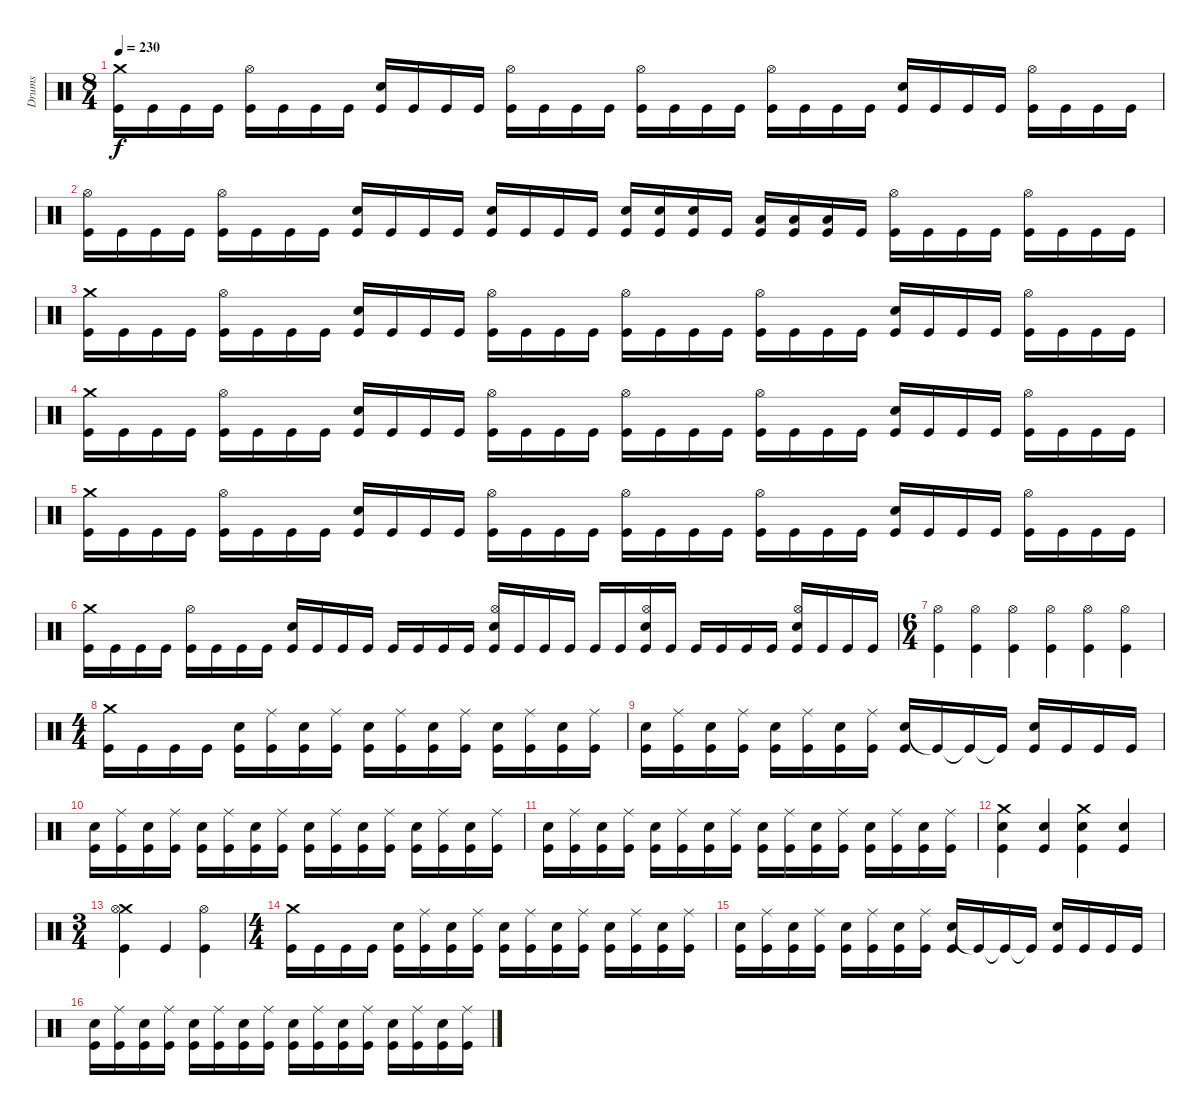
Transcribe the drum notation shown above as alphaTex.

\track ("Drums" "Drums") {instrument percussion}
\staff {score}
\articulation defaults
\ts (8 4)
\tempo 230
\clef neutral
\ks c
("Crash medium (hit)" "Kick (hit)").16{dy f} "Kick (hit)".16 "Kick (hit)".16 "Kick (hit)".16 ("Hi-Hat (open)" "Kick (hit)").16 "Kick (hit)".16 "Kick (hit)".16 "Kick (hit)".16 ("Electric Snare (hit)" "Kick (hit)").16 "Kick (hit)".16 "Kick (hit)".16 "Kick (hit)".16 ("Hi-Hat (open)" "Kick (hit)").16 "Kick (hit)".16 "Kick (hit)".16 "Kick (hit)".16 ("Hi-Hat (open)" "Kick (hit)").16 "Kick (hit)".16 "Kick (hit)".16 "Kick (hit)".16 ("Hi-Hat (open)" "Kick (hit)").16 "Kick (hit)".16 "Kick (hit)".16 "Kick (hit)".16 ("Electric Snare (hit)" "Kick (hit)").16 "Kick (hit)".16 "Kick (hit)".16 "Kick (hit)".16 ("Hi-Hat (open)" "Kick (hit)").16 "Kick (hit)".16 "Kick (hit)".16 "Kick (hit)".16 |
("Hi-Hat (open)" "Kick (hit)").16 "Kick (hit)".16 "Kick (hit)".16 "Kick (hit)".16 ("Hi-Hat (open)" "Kick (hit)").16 "Kick (hit)".16 "Kick (hit)".16 "Kick (hit)".16 ("Electric Snare (hit)" "Kick (hit)").16 "Kick (hit)".16 "Kick (hit)".16 "Kick (hit)".16 ("Electric Snare (hit)" "Kick (hit)").16 "Kick (hit)".16 "Kick (hit)".16 "Kick (hit)".16 ("Electric Snare (hit)" "Kick (hit)").16 ("Electric Snare (hit)" "Kick (hit)").16 ("Electric Snare (hit)" "Kick (hit)").16 "Kick (hit)".16 ("Low Floor Tom (hit)" "Kick (hit)").16 ("Low Floor Tom (hit)" "Kick (hit)").16 ("Low Floor Tom (hit)" "Kick (hit)").16 "Kick (hit)".16 ("Hi-Hat (open)" "Kick (hit)").16 "Kick (hit)".16 "Kick (hit)".16 "Kick (hit)".16 ("Hi-Hat (open)" "Kick (hit)").16 "Kick (hit)".16 "Kick (hit)".16 "Kick (hit)".16 |
("Crash medium (hit)" "Kick (hit)").16 "Kick (hit)".16 "Kick (hit)".16 "Kick (hit)".16 ("Hi-Hat (open)" "Kick (hit)").16 "Kick (hit)".16 "Kick (hit)".16 "Kick (hit)".16 ("Electric Snare (hit)" "Kick (hit)").16 "Kick (hit)".16 "Kick (hit)".16 "Kick (hit)".16 ("Hi-Hat (open)" "Kick (hit)").16 "Kick (hit)".16 "Kick (hit)".16 "Kick (hit)".16 ("Hi-Hat (open)" "Kick (hit)").16 "Kick (hit)".16 "Kick (hit)".16 "Kick (hit)".16 ("Hi-Hat (open)" "Kick (hit)").16 "Kick (hit)".16 "Kick (hit)".16 "Kick (hit)".16 ("Electric Snare (hit)" "Kick (hit)").16 "Kick (hit)".16 "Kick (hit)".16 "Kick (hit)".16 ("Hi-Hat (open)" "Kick (hit)").16 "Kick (hit)".16 "Kick (hit)".16 "Kick (hit)".16 |
("Crash medium (hit)" "Kick (hit)").16 "Kick (hit)".16 "Kick (hit)".16 "Kick (hit)".16 ("Hi-Hat (open)" "Kick (hit)").16 "Kick (hit)".16 "Kick (hit)".16 "Kick (hit)".16 ("Electric Snare (hit)" "Kick (hit)").16 "Kick (hit)".16 "Kick (hit)".16 "Kick (hit)".16 ("Hi-Hat (open)" "Kick (hit)").16 "Kick (hit)".16 "Kick (hit)".16 "Kick (hit)".16 ("Hi-Hat (open)" "Kick (hit)").16 "Kick (hit)".16 "Kick (hit)".16 "Kick (hit)".16 ("Hi-Hat (open)" "Kick (hit)").16 "Kick (hit)".16 "Kick (hit)".16 "Kick (hit)".16 ("Electric Snare (hit)" "Kick (hit)").16 "Kick (hit)".16 "Kick (hit)".16 "Kick (hit)".16 ("Hi-Hat (open)" "Kick (hit)").16 "Kick (hit)".16 "Kick (hit)".16 "Kick (hit)".16 |
("Crash medium (hit)" "Kick (hit)").16 "Kick (hit)".16 "Kick (hit)".16 "Kick (hit)".16 ("Hi-Hat (open)" "Kick (hit)").16 "Kick (hit)".16 "Kick (hit)".16 "Kick (hit)".16 ("Electric Snare (hit)" "Kick (hit)").16 "Kick (hit)".16 "Kick (hit)".16 "Kick (hit)".16 ("Hi-Hat (open)" "Kick (hit)").16 "Kick (hit)".16 "Kick (hit)".16 "Kick (hit)".16 ("Hi-Hat (open)" "Kick (hit)").16 "Kick (hit)".16 "Kick (hit)".16 "Kick (hit)".16 ("Hi-Hat (open)" "Kick (hit)").16 "Kick (hit)".16 "Kick (hit)".16 "Kick (hit)".16 ("Electric Snare (hit)" "Kick (hit)").16 "Kick (hit)".16 "Kick (hit)".16 "Kick (hit)".16 ("Hi-Hat (open)" "Kick (hit)").16 "Kick (hit)".16 "Kick (hit)".16 "Kick (hit)".16 |
("Crash medium (hit)" "Kick (hit)").16 "Kick (hit)".16 "Kick (hit)".16 "Kick (hit)".16 ("Hi-Hat (open)" "Kick (hit)").16 "Kick (hit)".16 "Kick (hit)".16 "Kick (hit)".16 ("Electric Snare (hit)" "Kick (hit)").16 "Kick (hit)".16 "Kick (hit)".16 "Kick (hit)".16 "Kick (hit)".16 "Kick (hit)".16 "Kick (hit)".16 "Kick (hit)".16 ("Hi-Hat (open)" "Electric Snare (hit)" "Kick (hit)").16 "Kick (hit)".16 "Kick (hit)".16 "Kick (hit)".16 "Kick (hit)".16 "Kick (hit)".16 ("Hi-Hat (open)" "Electric Snare (hit)" "Kick (hit)").16 "Kick (hit)".16 "Kick (hit)".16 "Kick (hit)".16 "Kick (hit)".16 "Kick (hit)".16 ("Hi-Hat (open)" "Electric Snare (hit)" "Kick (hit)").16 "Kick (hit)".16 "Kick (hit)".16 "Kick (hit)".16 |
\ts (6 4)
("Hi-Hat (open)" "Kick (hit)").4 ("Hi-Hat (open)" "Kick (hit)").4 ("Hi-Hat (open)" "Kick (hit)").4 ("Hi-Hat (open)" "Kick (hit)").4 ("Hi-Hat (open)" "Kick (hit)").4 ("Hi-Hat (open)" "Kick (hit)").4 |
\ts (4 4)
("Crash medium (hit)" "Kick (hit)").16 "Kick (hit)".16 "Kick (hit)".16 "Kick (hit)".16 ("Electric Snare (hit)" "Kick (hit)").16 ("Ride (middle)" "Kick (hit)").16 ("Electric Snare (hit)" "Kick (hit)").16 ("Ride (middle)" "Kick (hit)").16 ("Electric Snare (hit)" "Kick (hit)").16 ("Ride (middle)" "Kick (hit)").16 ("Electric Snare (hit)" "Kick (hit)").16 ("Ride (middle)" "Kick (hit)").16 ("Electric Snare (hit)" "Kick (hit)").16 ("Ride (middle)" "Kick (hit)").16 ("Electric Snare (hit)" "Kick (hit)").16 ("Ride (middle)" "Kick (hit)").16 |
("Electric Snare (hit)" "Kick (hit)").16 ("Ride (middle)" "Kick (hit)").16 ("Electric Snare (hit)" "Kick (hit)").16 ("Ride (middle)" "Kick (hit)").16 ("Electric Snare (hit)" "Kick (hit)").16 ("Ride (middle)" "Kick (hit)").16 ("Electric Snare (hit)" "Kick (hit)").16 ("Ride (middle)" "Kick (hit)").16 ("Electric Snare (hit)" "Kick (hit)").16 "Kick (hit)"{t}.16 "Kick (hit)"{t}.16 "Kick (hit)"{t}.16 ("Electric Snare (hit)" "Kick (hit)").16 "Kick (hit)".16 "Kick (hit)".16 "Kick (hit)".16 |
("Electric Snare (hit)" "Kick (hit)").16 ("Ride (middle)" "Kick (hit)").16 ("Electric Snare (hit)" "Kick (hit)").16 ("Ride (middle)" "Kick (hit)").16 ("Electric Snare (hit)" "Kick (hit)").16 ("Ride (middle)" "Kick (hit)").16 ("Electric Snare (hit)" "Kick (hit)").16 ("Ride (middle)" "Kick (hit)").16 ("Electric Snare (hit)" "Kick (hit)").16 ("Ride (middle)" "Kick (hit)").16 ("Electric Snare (hit)" "Kick (hit)").16 ("Ride (middle)" "Kick (hit)").16 ("Electric Snare (hit)" "Kick (hit)").16 ("Ride (middle)" "Kick (hit)").16 ("Electric Snare (hit)" "Kick (hit)").16 ("Ride (middle)" "Kick (hit)").16 |
("Electric Snare (hit)" "Kick (hit)").16 ("Ride (middle)" "Kick (hit)").16 ("Electric Snare (hit)" "Kick (hit)").16 ("Ride (middle)" "Kick (hit)").16 ("Electric Snare (hit)" "Kick (hit)").16 ("Ride (middle)" "Kick (hit)").16 ("Electric Snare (hit)" "Kick (hit)").16 ("Ride (middle)" "Kick (hit)").16 ("Electric Snare (hit)" "Kick (hit)").16 ("Ride (middle)" "Kick (hit)").16 ("Electric Snare (hit)" "Kick (hit)").16 ("Ride (middle)" "Kick (hit)").16 ("Electric Snare (hit)" "Kick (hit)").16 ("Ride (middle)" "Kick (hit)").16 ("Electric Snare (hit)" "Kick (hit)").16 ("Ride (middle)" "Kick (hit)").16 |
("Crash medium (hit)" "Electric Snare (hit)" "Kick (hit)").4 ("Electric Snare (hit)" "Kick (hit)").4 ("Crash medium (hit)" "Electric Snare (hit)" "Kick (hit)").4 ("Electric Snare (hit)" "Kick (hit)").4 |
\ts (3 4)
("Crash medium (hit)" "Hi-Hat (open)" "Kick (hit)").4 "Kick (hit)".4 ("Hi-Hat (open)" "Kick (hit)").4 |
\ts (4 4)
("Crash medium (hit)" "Kick (hit)").16 "Kick (hit)".16 "Kick (hit)".16 "Kick (hit)".16 ("Electric Snare (hit)" "Kick (hit)").16 ("Ride (middle)" "Kick (hit)").16 ("Electric Snare (hit)" "Kick (hit)").16 ("Ride (middle)" "Kick (hit)").16 ("Electric Snare (hit)" "Kick (hit)").16 ("Ride (middle)" "Kick (hit)").16 ("Electric Snare (hit)" "Kick (hit)").16 ("Ride (middle)" "Kick (hit)").16 ("Electric Snare (hit)" "Kick (hit)").16 ("Ride (middle)" "Kick (hit)").16 ("Electric Snare (hit)" "Kick (hit)").16 ("Ride (middle)" "Kick (hit)").16 |
("Electric Snare (hit)" "Kick (hit)").16 ("Ride (middle)" "Kick (hit)").16 ("Electric Snare (hit)" "Kick (hit)").16 ("Ride (middle)" "Kick (hit)").16 ("Electric Snare (hit)" "Kick (hit)").16 ("Ride (middle)" "Kick (hit)").16 ("Electric Snare (hit)" "Kick (hit)").16 ("Ride (middle)" "Kick (hit)").16 ("Electric Snare (hit)" "Kick (hit)").16 "Kick (hit)"{t}.16 "Kick (hit)"{t}.16 "Kick (hit)"{t}.16 ("Electric Snare (hit)" "Kick (hit)").16 "Kick (hit)".16 "Kick (hit)".16 "Kick (hit)".16 |
("Electric Snare (hit)" "Kick (hit)").16 ("Ride (middle)" "Kick (hit)").16 ("Electric Snare (hit)" "Kick (hit)").16 ("Ride (middle)" "Kick (hit)").16 ("Electric Snare (hit)" "Kick (hit)").16 ("Ride (middle)" "Kick (hit)").16 ("Electric Snare (hit)" "Kick (hit)").16 ("Ride (middle)" "Kick (hit)").16 ("Electric Snare (hit)" "Kick (hit)").16 ("Ride (middle)" "Kick (hit)").16 ("Electric Snare (hit)" "Kick (hit)").16 ("Ride (middle)" "Kick (hit)").16 ("Electric Snare (hit)" "Kick (hit)").16 ("Ride (middle)" "Kick (hit)").16 ("Electric Snare (hit)" "Kick (hit)").16 ("Ride (middle)" "Kick (hit)").16
